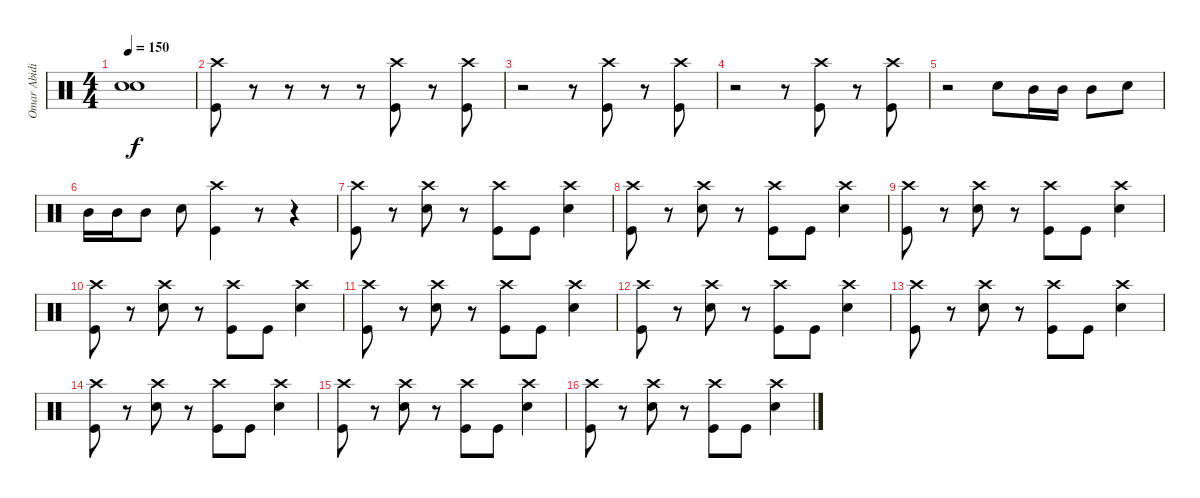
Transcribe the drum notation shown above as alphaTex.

\track ("Omar Abidi" "Omar Abidi") {instrument percussion}
\staff {score}
\articulation defaults
\ts (4 4)
\tempo 150
\clef neutral
\ks c
("Snare (hit)"{t} "Snare (hit)"{t}).1{dy f} |
("Crash high (hit)" "Kick (hit)").8 r.8 r.8 r.8 r.8 ("Crash high (hit)" "Kick (hit)").8 r.8 ("Crash high (hit)" "Kick (hit)").8 |
r.2 r.8 ("Crash high (hit)" "Kick (hit)").8 r.8 ("Crash high (hit)" "Kick (hit)").8 |
r.2 r.8 ("Crash high (hit)" "Kick (hit)").8 r.8 ("Crash high (hit)" "Kick (hit)").8 |
r.2 "Snare (hit) 2".8 "Mid Tom (hit)".16 "Mid Tom (hit)".16 "Mid Tom (hit)".8 "Snare (hit) 2".8 |
"Mid Tom (hit)".16 "Mid Tom (hit)".16 "Mid Tom (hit)".8 "Snare (hit) 2".8 ("Crash high (hit)" "Kick (hit)").4 r.8 r.4 |
("Crash high (hit)" "Kick (hit)").8 r.8 ("Crash high (hit)" "Snare (hit) 2").8 r.8 ("Crash high (hit)" "Kick (hit)").8 "Kick (hit)".8 ("Crash high (hit)" "Snare (hit) 2").4 |
("Crash high (hit)" "Kick (hit)").8 r.8 ("Crash high (hit)" "Snare (hit) 2").8 r.8 ("Crash high (hit)" "Kick (hit)").8 "Kick (hit)".8 ("Crash high (hit)" "Snare (hit) 2").4 |
("Crash high (hit)" "Kick (hit)").8 r.8 ("Crash high (hit)" "Snare (hit) 2").8 r.8 ("Crash high (hit)" "Kick (hit)").8 "Kick (hit)".8 ("Crash high (hit)" "Snare (hit) 2").4 |
("Crash high (hit)" "Kick (hit)").8 r.8 ("Crash high (hit)" "Snare (hit) 2").8 r.8 ("Crash high (hit)" "Kick (hit)").8 "Kick (hit)".8 ("Crash high (hit)" "Snare (hit) 2").4 |
("Crash high (hit)" "Kick (hit)").8 r.8 ("Crash high (hit)" "Snare (hit) 2").8 r.8 ("Crash high (hit)" "Kick (hit)").8 "Kick (hit)".8 ("Crash high (hit)" "Snare (hit) 2").4 |
("Crash high (hit)" "Kick (hit)").8 r.8 ("Crash high (hit)" "Snare (hit) 2").8 r.8 ("Crash high (hit)" "Kick (hit)").8 "Kick (hit)".8 ("Crash high (hit)" "Snare (hit) 2").4 |
("Crash high (hit)" "Kick (hit)").8 r.8 ("Crash high (hit)" "Snare (hit) 2").8 r.8 ("Crash high (hit)" "Kick (hit)").8 "Kick (hit)".8 ("Crash high (hit)" "Snare (hit) 2").4 |
("Crash high (hit)" "Kick (hit)").8 r.8 ("Crash high (hit)" "Snare (hit) 2").8 r.8 ("Crash high (hit)" "Kick (hit)").8 "Kick (hit)".8 ("Crash high (hit)" "Snare (hit) 2").4 |
("Crash high (hit)" "Kick (hit)").8 r.8 ("Crash high (hit)" "Snare (hit) 2").8 r.8 ("Crash high (hit)" "Kick (hit)").8 "Kick (hit)".8 ("Crash high (hit)" "Snare (hit) 2").4 |
("Crash high (hit)" "Kick (hit)").8 r.8 ("Crash high (hit)" "Snare (hit) 2").8 r.8 ("Crash high (hit)" "Kick (hit)").8 "Kick (hit)".8 ("Crash high (hit)" "Snare (hit) 2").4
